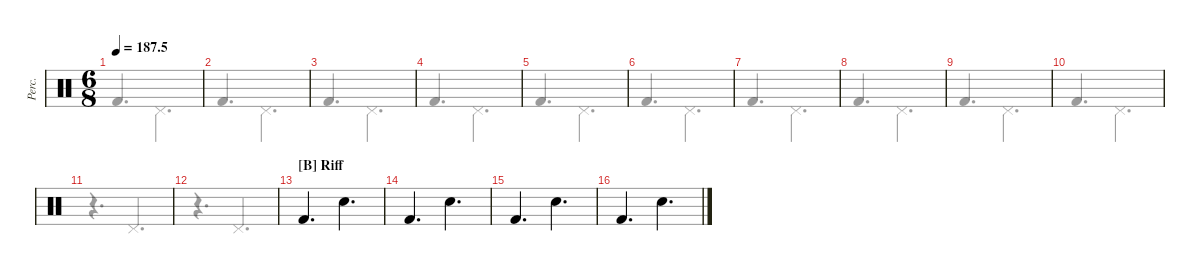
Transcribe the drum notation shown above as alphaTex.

\defaultSystemsLayout 4
\hideDynamics
\bracketExtendMode groupsimilarinstruments
\otherSystemsTrackNameOrientation horizontal
\track ("Percussions" "Perc.") {instrument percussion}
\staff {score}
\articulation defaults
\voice
\ts (6 8)
\tempo
187.5
\accidentals auto
\clef neutral
\ottava regular
\simile none
\ks c
|
|
|
|
|
|
|
|
|
|
|
|
\section ("B" "Riff")
"Kick (hit) 2".4{d beam Up} "Snare (hit) 2".4{d beam Down} |
"Kick (hit) 2".4{d beam Up} "Snare (hit) 2".4{d beam Down} |
"Kick (hit) 2".4{d beam Up} "Snare (hit) 2".4{d beam Down} |
"Kick (hit) 2".4{d beam Up} "Snare (hit) 2".4{d beam Down}
\voice
\clef neutral
\ottava regular
\simile none
\ks c "Kick (hit) 2".4{d dy mf beam Up} "Pedal Hi-Hat (hit)".4{d beam Down}
|
"Kick (hit) 2".4{d beam Up} "Pedal Hi-Hat (hit)".4{d beam Down} |
"Kick (hit) 2".4{d beam Up} "Pedal Hi-Hat (hit)".4{d beam Down} |
"Kick (hit) 2".4{d beam Up} "Pedal Hi-Hat (hit)".4{d beam Down} |
"Kick (hit) 2".4{d beam Up} "Pedal Hi-Hat (hit)".4{d beam Down} |
"Kick (hit) 2".4{d beam Up} "Pedal Hi-Hat (hit)".4{d beam Down} |
"Kick (hit) 2".4{d beam Up} "Pedal Hi-Hat (hit)".4{d beam Down} |
"Kick (hit) 2".4{d beam Up} "Pedal Hi-Hat (hit)".4{d beam Down} |
"Kick (hit) 2".4{d beam Up} "Pedal Hi-Hat (hit)".4{d beam Down} |
"Kick (hit) 2".4{d beam Up} "Pedal Hi-Hat (hit)".4{d beam Down} |
r.4{d beam Down} "Pedal Hi-Hat (hit)".4{d beam Up} |
r.4{d beam Down} "Pedal Hi-Hat (hit)".4{d beam Up} |
|
|
|
